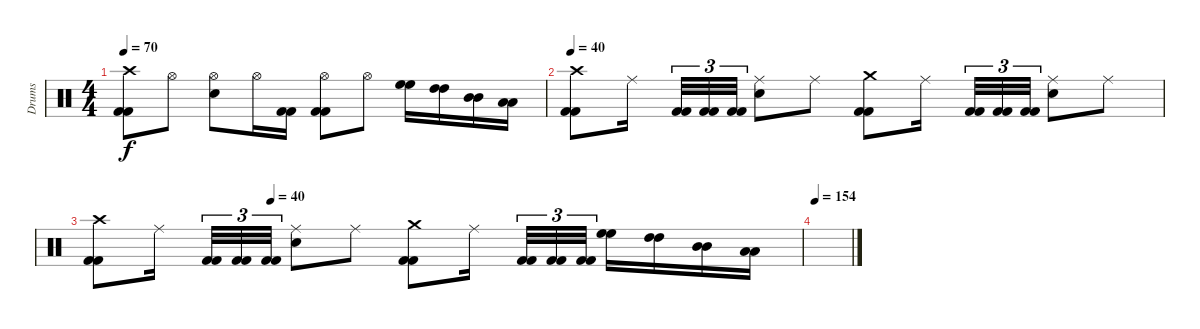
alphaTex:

\track ("Drums" "Drums") {instrument percussion}
\staff {score}
\articulation defaults
\ts (4 4)
\tempo 70
\clef neutral
\ks c
("Crash high (hit)" "Kick (hit) 2" "Kick (hit) 2").8{dy f} "Hi-Hat (open)".8 ("Hi-Hat (open)" "Snare (hit) 2").8 "Hi-Hat (open)".16 ("Kick (hit) 2" "Kick (hit) 2").16 ("Hi-Hat (open)" "Kick (hit) 2" "Kick (hit) 2").8 "Hi-Hat (open)".8 ("High Floor Tom (hit)" "High Floor Tom (hit)").16 ("High Tom (hit)" "High Tom (hit)").16 ("Mid Tom (hit)" "Mid Tom (hit)").16 ("Low Tom (hit)" "Low Tom (hit)").16 |
\tempo 40
("Crash high (hit)" "Kick (hit) 2" "Kick (hit) 2").8 "Ride (middle)".16 ("Kick (hit) 2" "Kick (hit) 2").32{tu (3 2)} ("Kick (hit) 2" "Kick (hit) 2").32{tu (3 2)} ("Kick (hit) 2" "Kick (hit) 2").32{tu (3 2)} ("Ride (middle)" "Snare (hit) 2").8 "Ride (middle)".8 ("Crash medium (hit)" "Kick (hit) 2" "Kick (hit) 2").8 "Ride (middle)".16 ("Kick (hit) 2" "Kick (hit) 2").32{tu (3 2)} ("Kick (hit) 2" "Kick (hit) 2").32{tu (3 2)} ("Kick (hit) 2" "Kick (hit) 2").32{tu (3 2)} ("Ride (middle)" "Snare (hit) 2").8 "Ride (middle)".8 |
\tempo (40 0.25)
("Crash high (hit)" "Kick (hit) 2" "Kick (hit) 2").8 "Ride (middle)".16 ("Kick (hit) 2" "Kick (hit) 2").32{tu (3 2)} ("Kick (hit) 2" "Kick (hit) 2").32{tu (3 2)} ("Kick (hit) 2" "Kick (hit) 2").32{tu (3 2)} ("Ride (middle)" "Snare (hit) 2").8 "Ride (middle)".8 ("Crash medium (hit)" "Kick (hit) 2" "Kick (hit) 2").8 "Ride (middle)".16 ("Kick (hit) 2" "Kick (hit) 2").32{tu (3 2)} ("Kick (hit) 2" "Kick (hit) 2").32{tu (3 2)} ("Kick (hit) 2" "Kick (hit) 2").32{tu (3 2)} ("High Floor Tom (hit)" "High Floor Tom (hit)").16 ("High Tom (hit)" "High Tom (hit)").16 ("Mid Tom (hit)" "Mid Tom (hit)").16 ("Low Tom (hit)" "Low Tom (hit)").16 |
\tempo 154
